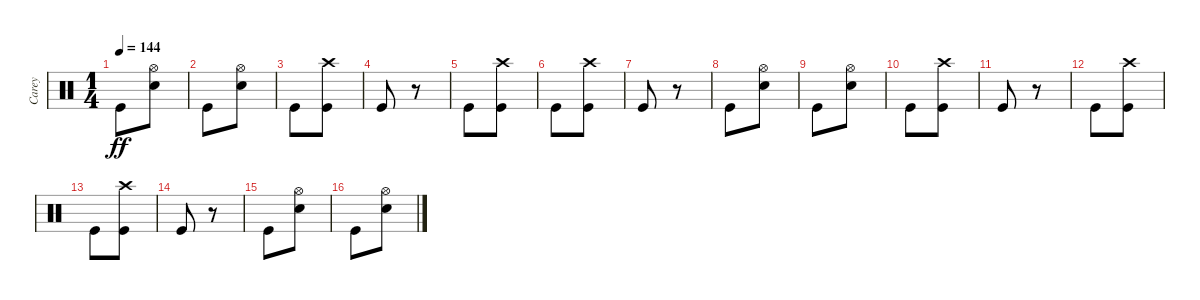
\track ("Carey" "Carey") {instrument percussion}
\staff {score}
\articulation defaults
\ts (1 4)
\tempo 144
\clef neutral
\ks c "Kick (hit)".8{dy ff}
("Snare (hit) 2" "Hi-Hat (open)").8 |
"Kick (hit)".8 ("Snare (hit) 2" "Hi-Hat (open)").8 |
"Kick (hit)".8 ("Kick (hit)" "Crash high (hit)").8 |
"Kick (hit)".8 r.8 |
"Kick (hit)".8 ("Kick (hit)" "Crash high (hit)").8 |
"Kick (hit)".8 ("Kick (hit)" "Crash high (hit)").8 |
"Kick (hit)".8 r.8 |
"Kick (hit)".8 ("Snare (hit) 2" "Hi-Hat (open)").8 |
"Kick (hit)".8 ("Snare (hit) 2" "Hi-Hat (open)").8 |
"Kick (hit)".8 ("Kick (hit)" "Crash high (hit)").8 |
"Kick (hit)".8 r.8 |
"Kick (hit)".8 ("Kick (hit)" "Crash high (hit)").8 |
"Kick (hit)".8 ("Kick (hit)" "Crash high (hit)").8 |
"Kick (hit)".8 r.8 |
"Kick (hit)".8 ("Snare (hit) 2" "Hi-Hat (open)").8 |
"Kick (hit)".8 ("Snare (hit) 2" "Hi-Hat (open)").8
